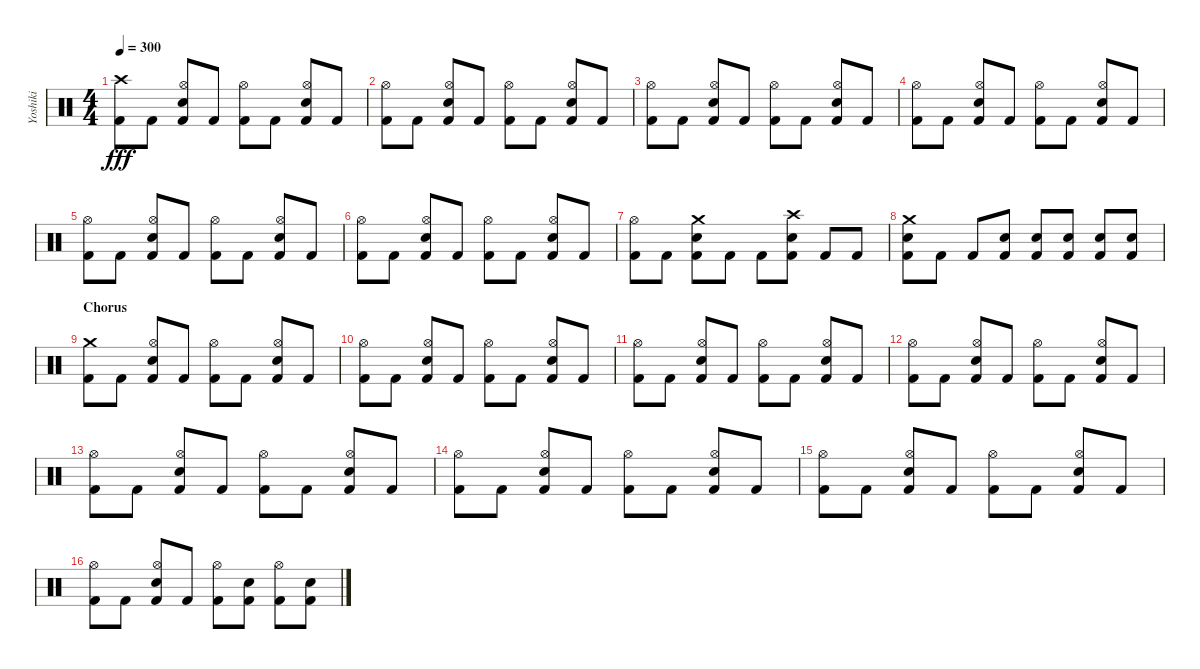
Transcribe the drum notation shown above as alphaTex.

\track ("Yoshiki" "Yoshiki") {instrument percussion}
\staff {score}
\articulation defaults
\ts (4 4)
\tempo 300
\clef neutral
\ks c
("Crash high (hit)" "Kick (hit) 2").8{dy fff} "Kick (hit) 2".8 ("Hi-Hat (open)" "Snare (hit) 2" "Kick (hit) 2").8 "Kick (hit) 2".8 ("Hi-Hat (open)" "Kick (hit) 2").8 "Kick (hit) 2".8 ("Hi-Hat (open)" "Snare (hit) 2" "Kick (hit) 2").8 "Kick (hit) 2".8 |
("Hi-Hat (open)" "Kick (hit) 2").8 "Kick (hit) 2".8 ("Hi-Hat (open)" "Snare (hit) 2" "Kick (hit) 2").8 "Kick (hit) 2".8 ("Hi-Hat (open)" "Kick (hit) 2").8 "Kick (hit) 2".8 ("Hi-Hat (open)" "Snare (hit) 2" "Kick (hit) 2").8 "Kick (hit) 2".8 |
("Hi-Hat (open)" "Kick (hit) 2").8 "Kick (hit) 2".8 ("Hi-Hat (open)" "Snare (hit) 2" "Kick (hit) 2").8 "Kick (hit) 2".8 ("Hi-Hat (open)" "Kick (hit) 2").8 "Kick (hit) 2".8 ("Hi-Hat (open)" "Snare (hit) 2" "Kick (hit) 2").8 "Kick (hit) 2".8 |
("Hi-Hat (open)" "Kick (hit) 2").8 "Kick (hit) 2".8 ("Hi-Hat (open)" "Snare (hit) 2" "Kick (hit) 2").8 "Kick (hit) 2".8 ("Hi-Hat (open)" "Kick (hit) 2").8 "Kick (hit) 2".8 ("Hi-Hat (open)" "Snare (hit) 2" "Kick (hit) 2").8 "Kick (hit) 2".8 |
("Hi-Hat (open)" "Kick (hit) 2").8 "Kick (hit) 2".8 ("Hi-Hat (open)" "Snare (hit) 2" "Kick (hit) 2").8 "Kick (hit) 2".8 ("Hi-Hat (open)" "Kick (hit) 2").8 "Kick (hit) 2".8 ("Hi-Hat (open)" "Snare (hit) 2" "Kick (hit) 2").8 "Kick (hit) 2".8 |
("Hi-Hat (open)" "Kick (hit) 2").8 "Kick (hit) 2".8 ("Hi-Hat (open)" "Snare (hit) 2" "Kick (hit) 2").8 "Kick (hit) 2".8 ("Hi-Hat (open)" "Kick (hit) 2").8 "Kick (hit) 2".8 ("Hi-Hat (open)" "Snare (hit) 2" "Kick (hit) 2").8 "Kick (hit) 2".8 |
("Hi-Hat (open)" "Kick (hit) 2").8 "Kick (hit) 2".8 ("Crash medium (hit)" "Snare (hit) 2" "Kick (hit) 2").8 "Kick (hit) 2".8 "Kick (hit) 2".8 ("Crash high (hit)" "Snare (hit) 2" "Kick (hit) 2").8 "Kick (hit) 2".8 "Kick (hit) 2".8 |
("Crash medium (hit)" "Snare (hit) 2" "Kick (hit) 2").8 "Kick (hit) 2".8 "Kick (hit) 2".8 ("Snare (hit) 2" "Kick (hit) 2").8 ("Snare (hit) 2" "Kick (hit) 2").8 ("Snare (hit) 2" "Kick (hit) 2").8 ("Snare (hit) 2" "Kick (hit) 2").8 ("Snare (hit) 2" "Kick (hit) 2").8 |
\section ("" "Chorus")
("Crash medium (hit)" "Kick (hit) 2").8 "Kick (hit) 2".8 ("Hi-Hat (open)" "Snare (hit) 2" "Kick (hit) 2").8 "Kick (hit) 2".8 ("Hi-Hat (open)" "Kick (hit) 2").8 "Kick (hit) 2".8 ("Hi-Hat (open)" "Snare (hit) 2" "Kick (hit) 2").8 "Kick (hit) 2".8 |
("Hi-Hat (open)" "Kick (hit) 2").8 "Kick (hit) 2".8 ("Hi-Hat (open)" "Snare (hit) 2" "Kick (hit) 2").8 "Kick (hit) 2".8 ("Hi-Hat (open)" "Kick (hit) 2").8 "Kick (hit) 2".8 ("Hi-Hat (open)" "Snare (hit) 2" "Kick (hit) 2").8 "Kick (hit) 2".8 |
("Hi-Hat (open)" "Kick (hit) 2").8 "Kick (hit) 2".8 ("Hi-Hat (open)" "Snare (hit) 2" "Kick (hit) 2").8 "Kick (hit) 2".8 ("Hi-Hat (open)" "Kick (hit) 2").8 "Kick (hit) 2".8 ("Hi-Hat (open)" "Snare (hit) 2" "Kick (hit) 2").8 "Kick (hit) 2".8 |
("Hi-Hat (open)" "Kick (hit) 2").8 "Kick (hit) 2".8 ("Hi-Hat (open)" "Snare (hit) 2" "Kick (hit) 2").8 "Kick (hit) 2".8 ("Hi-Hat (open)" "Kick (hit) 2").8 "Kick (hit) 2".8 ("Hi-Hat (open)" "Snare (hit) 2" "Kick (hit) 2").8 "Kick (hit) 2".8 |
("Hi-Hat (open)" "Kick (hit) 2").8 "Kick (hit) 2".8 ("Hi-Hat (open)" "Snare (hit) 2" "Kick (hit) 2").8 "Kick (hit) 2".8 ("Hi-Hat (open)" "Kick (hit) 2").8 "Kick (hit) 2".8 ("Hi-Hat (open)" "Snare (hit) 2" "Kick (hit) 2").8 "Kick (hit) 2".8 |
("Hi-Hat (open)" "Kick (hit) 2").8 "Kick (hit) 2".8 ("Hi-Hat (open)" "Snare (hit) 2" "Kick (hit) 2").8 "Kick (hit) 2".8 ("Hi-Hat (open)" "Kick (hit) 2").8 "Kick (hit) 2".8 ("Hi-Hat (open)" "Snare (hit) 2" "Kick (hit) 2").8 "Kick (hit) 2".8 |
("Hi-Hat (open)" "Kick (hit) 2").8 "Kick (hit) 2".8 ("Hi-Hat (open)" "Snare (hit) 2" "Kick (hit) 2").8 "Kick (hit) 2".8 ("Hi-Hat (open)" "Kick (hit) 2").8 "Kick (hit) 2".8 ("Hi-Hat (open)" "Snare (hit) 2" "Kick (hit) 2").8 "Kick (hit) 2".8 |
("Hi-Hat (open)" "Kick (hit) 2").8 "Kick (hit) 2".8 ("Hi-Hat (open)" "Snare (hit) 2" "Kick (hit) 2").8 "Kick (hit) 2".8 ("Hi-Hat (open)" "Kick (hit) 2").8 ("Snare (hit) 2" "Kick (hit) 2").8 ("Hi-Hat (open)" "Kick (hit) 2").8 ("Snare (hit) 2" "Kick (hit) 2").8
